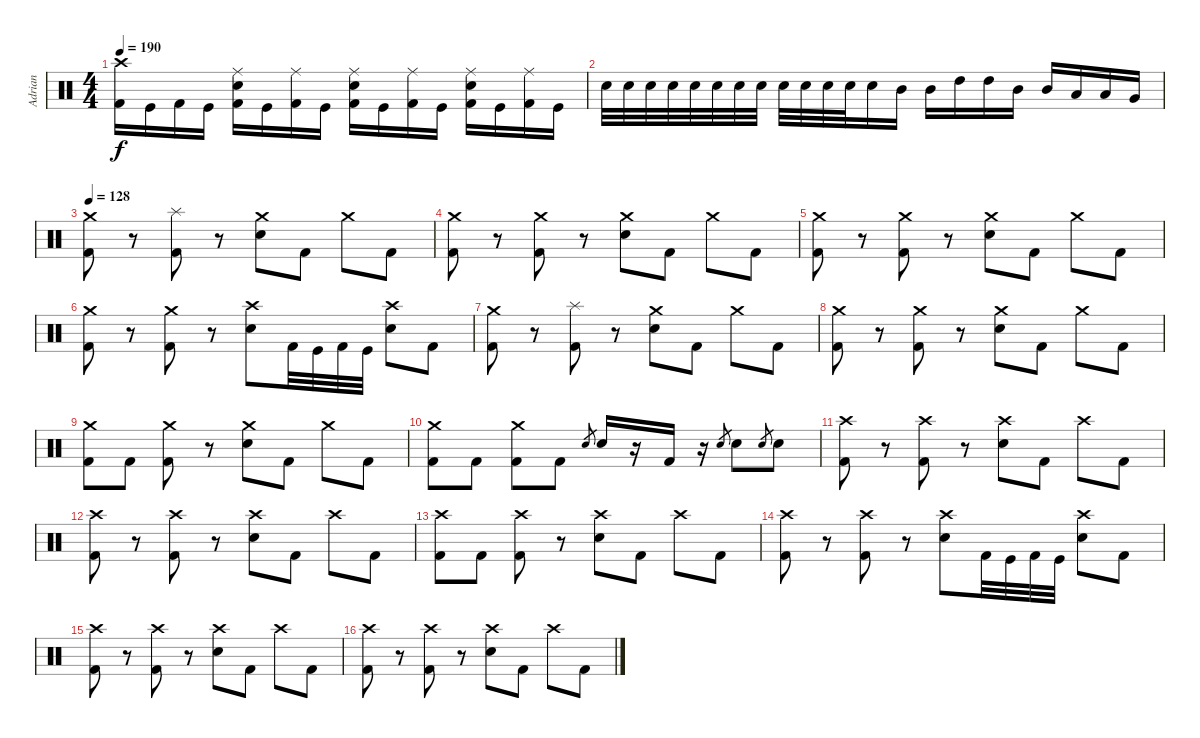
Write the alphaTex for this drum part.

\track ("Adrian" "Adrian") {instrument percussion}
\staff {score}
\articulation defaults
\ts (4 4)
\tempo 190
\clef neutral
\ks c
("Crash high (hit)" "Kick (hit) 2").16{dy f} "Kick (hit)".16 "Kick (hit) 2".16 "Kick (hit)".16 ("Ride (middle)" "Electric Snare (hit)" "Kick (hit) 2").16 "Kick (hit)".16 ("Ride (middle)" "Kick (hit) 2").16 "Kick (hit)".16 ("Ride (middle)" "Electric Snare (hit)" "Kick (hit) 2").16 "Kick (hit)".16 ("Ride (middle)" "Kick (hit) 2").16 "Kick (hit)".16 ("Ride (middle)" "Electric Snare (hit)" "Kick (hit) 2").16 "Kick (hit)".16 ("Ride (middle)" "Kick (hit) 2").16 "Kick (hit)".16 |
"Electric Snare (hit)".32 "Electric Snare (hit)".32 "Electric Snare (hit)".32 "Electric Snare (hit)".32 "Electric Snare (hit)".32 "Electric Snare (hit)".32 "Electric Snare (hit)".32 "Electric Snare (hit)".32 "Electric Snare (hit)".32 "Electric Snare (hit)".32 "Electric Snare (hit)".32 "Electric Snare (hit)".32 "Electric Snare (hit)".16 "Mid Tom (hit)".16 "Mid Tom (hit)".16 "High Tom (hit)".16 "High Tom (hit)".16 "Mid Tom (hit)".16 "Mid Tom (hit)".16 "Low Tom (hit)".16 "Low Tom (hit)".16 "Very Low Tom (hit)".16 |
\tempo 128
("Crash medium (hit)" "Kick (hit) 2").8 r.8 ("Splash (hit)" "Kick (hit) 2").8 r.8 ("Crash medium (hit)" "Electric Snare (hit)").8 "Kick (hit) 2".8 "Crash medium (hit)".8 "Kick (hit) 2".8 |
("Crash medium (hit)" "Kick (hit) 2").8 r.8 ("Crash medium (hit)" "Kick (hit) 2").8 r.8 ("Crash medium (hit)" "Electric Snare (hit)").8 "Kick (hit) 2".8 "Crash medium (hit)".8 "Kick (hit) 2".8 |
("Crash medium (hit)" "Kick (hit) 2").8 r.8 ("Crash medium (hit)" "Kick (hit) 2").8 r.8 ("Crash medium (hit)" "Electric Snare (hit)").8 "Kick (hit) 2".8 "Crash medium (hit)".8 "Kick (hit) 2".8 |
("Crash medium (hit)" "Kick (hit) 2").8 r.8 ("Crash medium (hit)" "Kick (hit) 2").8 r.8 ("Crash high (hit)" "Electric Snare (hit)").8 "Kick (hit) 2".32 "Kick (hit)".32 "Kick (hit) 2".32 "Kick (hit)".32 ("Crash high (hit)" "Electric Snare (hit)").8 "Kick (hit) 2".8 |
("Crash medium (hit)" "Kick (hit) 2").8 r.8 ("Splash (hit)" "Kick (hit) 2").8 r.8 ("Crash medium (hit)" "Electric Snare (hit)").8 "Kick (hit) 2".8 "Crash medium (hit)".8 "Kick (hit) 2".8 |
("Crash medium (hit)" "Kick (hit) 2").8 r.8 ("Crash medium (hit)" "Kick (hit) 2").8 r.8 ("Crash medium (hit)" "Electric Snare (hit)").8 "Kick (hit) 2".8 "Crash medium (hit)".8 "Kick (hit) 2".8 |
("Crash medium (hit)" "Kick (hit) 2").8 "Kick (hit) 2".8 ("Crash medium (hit)" "Kick (hit) 2").8 r.8 ("Crash medium (hit)" "Electric Snare (hit)").8 "Kick (hit) 2".8 "Crash medium (hit)".8 "Kick (hit) 2".8 |
("Crash medium (hit)" "Kick (hit) 2").8 "Kick (hit) 2".8 ("Crash medium (hit)" "Kick (hit) 2").8 "Kick (hit) 2".8 "Electric Snare (hit)".8{gr} "Electric Snare (hit)".16 r.16 "Kick (hit) 2".16 r.16 "Electric Snare (hit)".8{gr} "Electric Snare (hit)".8 "Electric Snare (hit)".8{gr} "Electric Snare (hit)".8 |
("Crash high (hit)" "Kick (hit) 2").8 r.8 ("Crash high (hit)" "Kick (hit) 2").8 r.8 ("Crash high (hit)" "Electric Snare (hit)").8 "Kick (hit) 2".8 "Crash high (hit)".8 "Kick (hit) 2".8 |
("Crash high (hit)" "Kick (hit) 2").8 r.8 ("Crash high (hit)" "Kick (hit) 2").8 r.8 ("Crash high (hit)" "Electric Snare (hit)").8 "Kick (hit) 2".8 "Crash high (hit)".8 "Kick (hit) 2".8 |
("Crash high (hit)" "Kick (hit) 2").8 "Kick (hit) 2".8 ("Crash high (hit)" "Kick (hit) 2").8 r.8 ("Crash high (hit)" "Electric Snare (hit)").8 "Kick (hit) 2".8 "Crash high (hit)".8 "Kick (hit) 2".8 |
("Crash high (hit)" "Kick (hit) 2").8 r.8 ("Crash high (hit)" "Kick (hit) 2").8 r.8 ("Crash high (hit)" "Electric Snare (hit)").8 "Kick (hit) 2".32 "Kick (hit)".32 "Kick (hit) 2".32 "Kick (hit)".32 ("Crash high (hit)" "Electric Snare (hit)").8 "Kick (hit) 2".8 |
("Crash high (hit)" "Kick (hit) 2").8 r.8 ("Crash high (hit)" "Kick (hit) 2").8 r.8 ("Crash high (hit)" "Electric Snare (hit)").8 "Kick (hit) 2".8 "Crash high (hit)".8 "Kick (hit) 2".8 |
("Crash high (hit)" "Kick (hit) 2").8 r.8 ("Crash high (hit)" "Kick (hit) 2").8 r.8 ("Crash high (hit)" "Electric Snare (hit)").8 "Kick (hit) 2".8 "Crash high (hit)".8 "Kick (hit) 2".8
